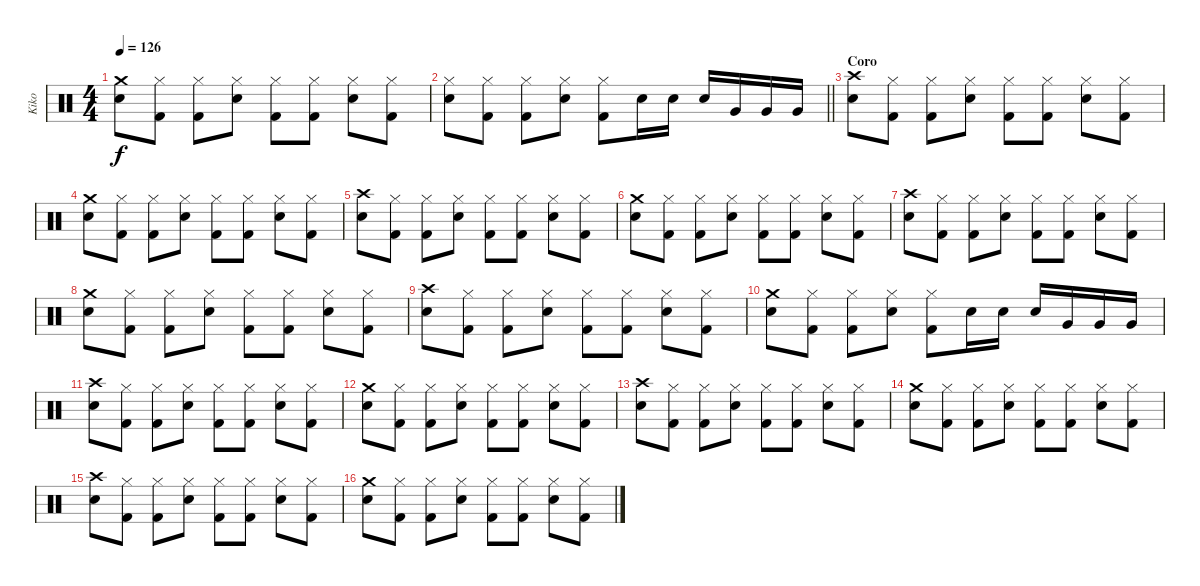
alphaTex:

\track ("Kiko" "Kiko") {instrument percussion}
\staff {score}
\articulation defaults
\ts (4 4)
\tempo 126
\clef neutral
\ks c
("Crash medium (hit)" "Electric Snare (hit)").8{dy f} ("Hi-Hat (closed)" "Kick (hit) 2").8 ("Hi-Hat (closed)" "Kick (hit) 2").8 ("Hi-Hat (closed)" "Electric Snare (hit)").8 ("Hi-Hat (closed)" "Kick (hit) 2").8 ("Hi-Hat (closed)" "Kick (hit) 2").8 ("Hi-Hat (closed)" "Electric Snare (hit)").8 ("Hi-Hat (closed)" "Kick (hit) 2").8 |
\barLineRight lightlight
("Hi-Hat (closed)" "Electric Snare (hit)").8 ("Hi-Hat (closed)" "Kick (hit) 2").8 ("Hi-Hat (closed)" "Kick (hit) 2").8 ("Hi-Hat (closed)" "Electric Snare (hit)").8 ("Hi-Hat (closed)" "Kick (hit) 2").8 "Electric Snare (hit)".16 "Electric Snare (hit)".16 "Electric Snare (hit)".16 "Very Low Tom (hit)".16 "Very Low Tom (hit)".16 "Very Low Tom (hit)".16 |
\section ("" "Coro")
("Crash high (hit)" "Electric Snare (hit)").8 ("Hi-Hat (closed)" "Kick (hit) 2").8 ("Hi-Hat (closed)" "Kick (hit) 2").8 ("Hi-Hat (closed)" "Electric Snare (hit)").8 ("Hi-Hat (closed)" "Kick (hit) 2").8 ("Hi-Hat (closed)" "Kick (hit) 2").8 ("Hi-Hat (closed)" "Electric Snare (hit)").8 ("Hi-Hat (closed)" "Kick (hit) 2").8 |
("Crash medium (hit)" "Electric Snare (hit)").8 ("Hi-Hat (closed)" "Kick (hit) 2").8 ("Hi-Hat (closed)" "Kick (hit) 2").8 ("Hi-Hat (closed)" "Electric Snare (hit)").8 ("Hi-Hat (closed)" "Kick (hit) 2").8 ("Hi-Hat (closed)" "Kick (hit) 2").8 ("Hi-Hat (closed)" "Electric Snare (hit)").8 ("Hi-Hat (closed)" "Kick (hit) 2").8 |
("Crash high (hit)" "Electric Snare (hit)").8 ("Hi-Hat (closed)" "Kick (hit) 2").8 ("Hi-Hat (closed)" "Kick (hit) 2").8 ("Hi-Hat (closed)" "Electric Snare (hit)").8 ("Hi-Hat (closed)" "Kick (hit) 2").8 ("Hi-Hat (closed)" "Kick (hit) 2").8 ("Hi-Hat (closed)" "Electric Snare (hit)").8 ("Hi-Hat (closed)" "Kick (hit) 2").8 |
("Crash medium (hit)" "Electric Snare (hit)").8 ("Hi-Hat (closed)" "Kick (hit) 2").8 ("Hi-Hat (closed)" "Kick (hit) 2").8 ("Hi-Hat (closed)" "Electric Snare (hit)").8 ("Hi-Hat (closed)" "Kick (hit) 2").8 ("Hi-Hat (closed)" "Kick (hit) 2").8 ("Hi-Hat (closed)" "Electric Snare (hit)").8 ("Hi-Hat (closed)" "Kick (hit) 2").8 |
("Crash high (hit)" "Electric Snare (hit)").8 ("Hi-Hat (closed)" "Kick (hit) 2").8 ("Hi-Hat (closed)" "Kick (hit) 2").8 ("Hi-Hat (closed)" "Electric Snare (hit)").8 ("Hi-Hat (closed)" "Kick (hit) 2").8 ("Hi-Hat (closed)" "Kick (hit) 2").8 ("Hi-Hat (closed)" "Electric Snare (hit)").8 ("Hi-Hat (closed)" "Kick (hit) 2").8 |
("Crash medium (hit)" "Electric Snare (hit)").8 ("Hi-Hat (closed)" "Kick (hit) 2").8 ("Hi-Hat (closed)" "Kick (hit) 2").8 ("Hi-Hat (closed)" "Electric Snare (hit)").8 ("Hi-Hat (closed)" "Kick (hit) 2").8 ("Hi-Hat (closed)" "Kick (hit) 2").8 ("Hi-Hat (closed)" "Electric Snare (hit)").8 ("Hi-Hat (closed)" "Kick (hit) 2").8 |
("Crash high (hit)" "Electric Snare (hit)").8 ("Hi-Hat (closed)" "Kick (hit) 2").8 ("Hi-Hat (closed)" "Kick (hit) 2").8 ("Hi-Hat (closed)" "Electric Snare (hit)").8 ("Hi-Hat (closed)" "Kick (hit) 2").8 ("Hi-Hat (closed)" "Kick (hit) 2").8 ("Hi-Hat (closed)" "Electric Snare (hit)").8 ("Hi-Hat (closed)" "Kick (hit) 2").8 |
("Crash medium (hit)" "Electric Snare (hit)").8 ("Hi-Hat (closed)" "Kick (hit) 2").8 ("Hi-Hat (closed)" "Kick (hit) 2").8 ("Hi-Hat (closed)" "Electric Snare (hit)").8 ("Hi-Hat (closed)" "Kick (hit) 2").8 "Electric Snare (hit)".16 "Electric Snare (hit)".16 "Electric Snare (hit)".16 "Very Low Tom (hit)".16 "Very Low Tom (hit)".16 "Very Low Tom (hit)".16 |
("Crash high (hit)" "Electric Snare (hit)").8 ("Hi-Hat (closed)" "Kick (hit) 2").8 ("Hi-Hat (closed)" "Kick (hit) 2").8 ("Hi-Hat (closed)" "Electric Snare (hit)").8 ("Hi-Hat (closed)" "Kick (hit) 2").8 ("Hi-Hat (closed)" "Kick (hit) 2").8 ("Hi-Hat (closed)" "Electric Snare (hit)").8 ("Hi-Hat (closed)" "Kick (hit) 2").8 |
("Crash medium (hit)" "Electric Snare (hit)").8 ("Hi-Hat (closed)" "Kick (hit) 2").8 ("Hi-Hat (closed)" "Kick (hit) 2").8 ("Hi-Hat (closed)" "Electric Snare (hit)").8 ("Hi-Hat (closed)" "Kick (hit) 2").8 ("Hi-Hat (closed)" "Kick (hit) 2").8 ("Hi-Hat (closed)" "Electric Snare (hit)").8 ("Hi-Hat (closed)" "Kick (hit) 2").8 |
("Crash high (hit)" "Electric Snare (hit)").8 ("Hi-Hat (closed)" "Kick (hit) 2").8 ("Hi-Hat (closed)" "Kick (hit) 2").8 ("Hi-Hat (closed)" "Electric Snare (hit)").8 ("Hi-Hat (closed)" "Kick (hit) 2").8 ("Hi-Hat (closed)" "Kick (hit) 2").8 ("Hi-Hat (closed)" "Electric Snare (hit)").8 ("Hi-Hat (closed)" "Kick (hit) 2").8 |
("Crash medium (hit)" "Electric Snare (hit)").8 ("Hi-Hat (closed)" "Kick (hit) 2").8 ("Hi-Hat (closed)" "Kick (hit) 2").8 ("Hi-Hat (closed)" "Electric Snare (hit)").8 ("Hi-Hat (closed)" "Kick (hit) 2").8 ("Hi-Hat (closed)" "Kick (hit) 2").8 ("Hi-Hat (closed)" "Electric Snare (hit)").8 ("Hi-Hat (closed)" "Kick (hit) 2").8 |
("Crash high (hit)" "Electric Snare (hit)").8 ("Hi-Hat (closed)" "Kick (hit) 2").8 ("Hi-Hat (closed)" "Kick (hit) 2").8 ("Hi-Hat (closed)" "Electric Snare (hit)").8 ("Hi-Hat (closed)" "Kick (hit) 2").8 ("Hi-Hat (closed)" "Kick (hit) 2").8 ("Hi-Hat (closed)" "Electric Snare (hit)").8 ("Hi-Hat (closed)" "Kick (hit) 2").8 |
("Crash medium (hit)" "Electric Snare (hit)").8 ("Hi-Hat (closed)" "Kick (hit) 2").8 ("Hi-Hat (closed)" "Kick (hit) 2").8 ("Hi-Hat (closed)" "Electric Snare (hit)").8 ("Hi-Hat (closed)" "Kick (hit) 2").8 ("Hi-Hat (closed)" "Kick (hit) 2").8 ("Hi-Hat (closed)" "Electric Snare (hit)").8 ("Hi-Hat (closed)" "Kick (hit) 2").8
